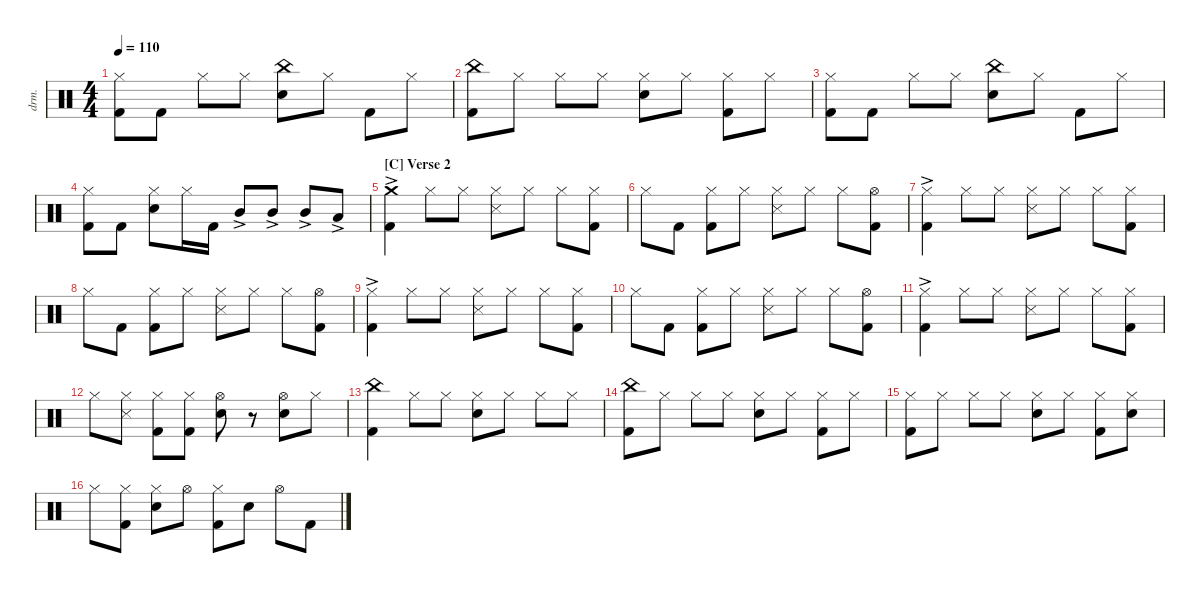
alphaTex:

\defaultSystemsLayout 4
\hideDynamics
\bracketExtendMode nobrackets
\otherSystemsTrackNameOrientation horizontal
\track ("Drums" "drm.") {instrument percussion}
\staff {score}
\articulation defaults
\ts (4 4)
\tempo 110
\clef neutral
\ks aminor
("Kick (hit) 2" "Hi-Hat (closed)").8{dy f beam Down} "Kick (hit) 2".8{beam Down} "Hi-Hat (closed)".8{beam Down} "Hi-Hat (closed)".8{beam Down} ("Snare (hit) 2" "China (hit)").8{beam Down} "Hi-Hat (closed)".8{beam Down} "Kick (hit) 2".8{beam Down} "Hi-Hat (closed)".8{beam Down} |
("Kick (hit) 2" "China (hit)").8{beam Down} "Hi-Hat (closed)".8{beam Down} "Hi-Hat (closed)".8{beam Down} "Hi-Hat (closed)".8{beam Down} ("Hi-Hat (closed)" "Snare (hit) 2").8{beam Down} "Hi-Hat (closed)".8{beam Down} ("Hi-Hat (closed)" "Kick (hit) 2").8{beam Down} "Hi-Hat (closed)".8{beam Down} |
("Kick (hit) 2" "Hi-Hat (closed)").8{beam Down} "Kick (hit) 2".8{beam Down} "Hi-Hat (closed)".8{beam Down} "Hi-Hat (closed)".8{beam Down} ("Snare (hit) 2" "China (hit)").8{beam Down} "Hi-Hat (closed)".8{beam Down} "Kick (hit) 2".8{beam Down} "Hi-Hat (closed)".8{beam Down} |
("Kick (hit) 2" "Hi-Hat (closed)").8{beam Down} "Kick (hit) 2".8{beam Down} ("Hi-Hat (closed)" "Snare (hit) 2").8{beam Down} "Hi-Hat (closed)".16{beam Down} "Kick (hit) 2".16{beam Down} "Mid Tom (hit)"{ac}.8{beam Up} "Mid Tom (hit)"{ac}.8{beam Up} "Mid Tom (hit)"{ac}.8{dy mf beam Up} "Low Tom (hit)"{ac}.8{beam Up} |
\section ("C" "Verse 2")
("Kick (hit) 2"{ac} "Crash medium (hit)"{ac}).4{dy mp beam Down} "Hi-Hat (closed)".8{dy mf beam Down} "Hi-Hat (closed)".8{beam Down} ("Snare (side stick) 3" "Hi-Hat (closed)").8{beam Down} "Hi-Hat (closed)".8{beam Down} "Hi-Hat (closed)".8{beam Down} ("Kick (hit) 2" "Hi-Hat (closed)").8{beam Down} |
"Hi-Hat (closed)".8{beam Down} "Kick (hit) 2".8{beam Down} ("Kick (hit) 2" "Hi-Hat (closed)").8{beam Down} "Hi-Hat (closed)".8{beam Down} ("Hi-Hat (closed)" "Snare (side stick) 3").8{beam Down} "Hi-Hat (closed)".8{beam Down} "Hi-Hat (closed)".8{beam Down} ("Kick (hit) 2" "Hi-Hat (open)").8{beam Down} |
("Kick (hit) 2"{ac} "Hi-Hat (closed)").4{dy mp beam Down} "Hi-Hat (closed)".8{dy mf beam Down} "Hi-Hat (closed)".8{beam Down} ("Snare (side stick) 3" "Hi-Hat (closed)").8{beam Down} "Hi-Hat (closed)".8{beam Down} "Hi-Hat (closed)".8{beam Down} ("Kick (hit) 2" "Hi-Hat (closed)").8{beam Down} |
"Hi-Hat (closed)".8{beam Down} "Kick (hit) 2".8{beam Down} ("Kick (hit) 2" "Hi-Hat (closed)").8{beam Down} "Hi-Hat (closed)".8{beam Down} ("Hi-Hat (closed)" "Snare (side stick) 3").8{beam Down} "Hi-Hat (closed)".8{beam Down} "Hi-Hat (closed)".8{beam Down} ("Kick (hit) 2" "Hi-Hat (open)").8{beam Down} |
("Kick (hit) 2"{ac} "Hi-Hat (closed)").4{dy mp beam Down} "Hi-Hat (closed)".8{dy mf beam Down} "Hi-Hat (closed)".8{beam Down} ("Snare (side stick) 3" "Hi-Hat (closed)").8{beam Down} "Hi-Hat (closed)".8{beam Down} "Hi-Hat (closed)".8{beam Down} ("Kick (hit) 2" "Hi-Hat (closed)").8{beam Down} |
"Hi-Hat (closed)".8{beam Down} "Kick (hit) 2".8{beam Down} ("Kick (hit) 2" "Hi-Hat (closed)").8{beam Down} "Hi-Hat (closed)".8{beam Down} ("Hi-Hat (closed)" "Snare (side stick) 3").8{beam Down} "Hi-Hat (closed)".8{beam Down} "Hi-Hat (closed)".8{beam Down} ("Kick (hit) 2" "Hi-Hat (open)").8{beam Down} |
("Kick (hit) 2"{ac} "Hi-Hat (closed)").4{dy mp beam Down} "Hi-Hat (closed)".8{dy mf beam Down} "Hi-Hat (closed)".8{beam Down} ("Snare (side stick) 3" "Hi-Hat (closed)").8{beam Down} "Hi-Hat (closed)".8{beam Down} "Hi-Hat (closed)".8{beam Down} ("Kick (hit) 2" "Hi-Hat (closed)").8{beam Down} |
"Hi-Hat (closed)".8{beam Down} ("Hi-Hat (closed)" "Snare (side stick) 3").8{beam Down} ("Hi-Hat (closed)" "Kick (hit) 2").8{beam Down} ("Hi-Hat (closed)" "Kick (hit) 2").8{beam Down} ("Hi-Hat (open)" "Snare (hit) 2").8{beam Down} r.8{beam Down} ("Snare (hit) 2" "Hi-Hat (open)").8{beam Down} "Hi-Hat (closed)".8{beam Down} |
("Kick (hit) 2" "China (hit)").4{beam Down} "Hi-Hat (closed)".8{beam Down} "Hi-Hat (closed)".8{beam Down} ("Hi-Hat (closed)" "Snare (hit) 2").8{beam Down} "Hi-Hat (closed)".8{beam Down} "Hi-Hat (closed)".8{beam Down} "Hi-Hat (closed)".8{beam Down} |
("Kick (hit) 2" "China (hit)").8{dy f beam Down} "Hi-Hat (closed)".8{beam Down} "Hi-Hat (closed)".8{beam Down} "Hi-Hat (closed)".8{beam Down} ("Hi-Hat (closed)" "Snare (hit) 2").8{beam Down} "Hi-Hat (closed)".8{beam Down} ("Hi-Hat (closed)" "Kick (hit) 2").8{beam Down} "Hi-Hat (closed)".8{beam Down} |
("Kick (hit) 2" "Hi-Hat (closed)").8{beam Down} "Hi-Hat (closed)".8{beam Down} "Hi-Hat (closed)".8{beam Down} "Hi-Hat (closed)".8{beam Down} ("Hi-Hat (closed)" "Snare (hit) 2").8{beam Down} "Hi-Hat (closed)".8{beam Down} ("Hi-Hat (closed)" "Kick (hit) 2").8{beam Down} ("Hi-Hat (closed)" "Snare (hit) 2").8{beam Down} |
"Hi-Hat (closed)".8{beam Down} ("Hi-Hat (closed)" "Kick (hit) 2").8{beam Down} ("Snare (hit) 2" "Hi-Hat (closed)").8{beam Down} "Hi-Hat (open)".8{beam Down} ("Hi-Hat (closed)" "Kick (hit) 2").8{beam Down} "Snare (hit) 2".8{beam Down} "Hi-Hat (open)".8{beam Down} "Kick (hit) 2".8{beam Down}
